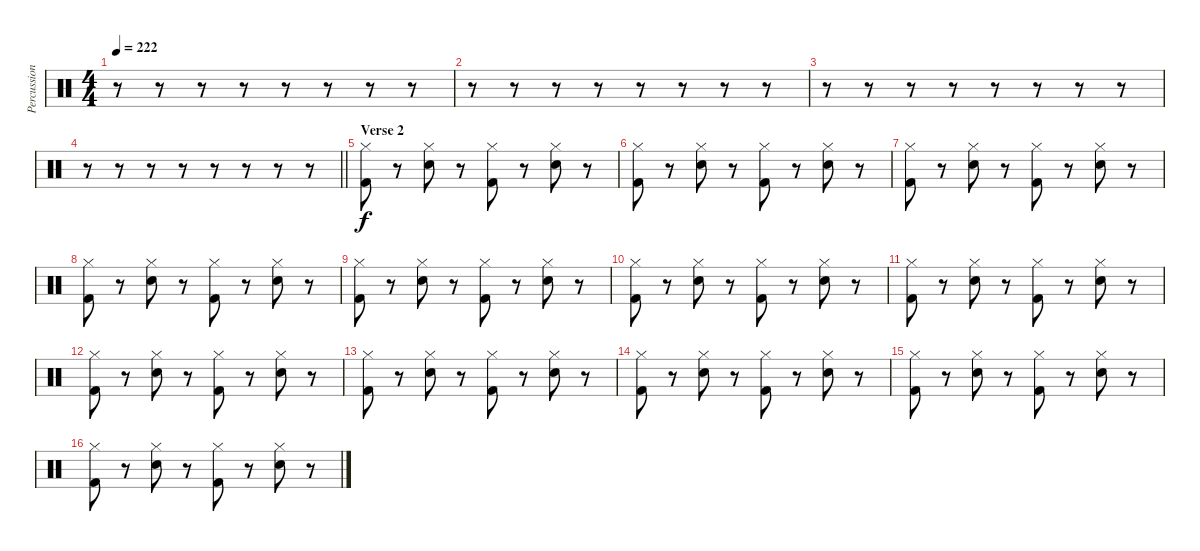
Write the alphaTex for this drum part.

\track ("Percussion" "Percussion") {instrument percussion}
\staff {score}
\articulation defaults
\ts (4 4)
\tempo 222
\clef neutral
\ks c
r.8{dy f} r.8 r.8 r.8 r.8 r.8 r.8 r.8 |
r.8 r.8 r.8 r.8 r.8 r.8 r.8 r.8 |
r.8 r.8 r.8 r.8 r.8 r.8 r.8 r.8 |
\barLineRight lightlight
r.8 r.8 r.8 r.8 r.8 r.8 r.8 r.8 |
\section ("" "Verse 2")
("Kick (hit) 2" "Hi-Hat (closed)").8 r.8 ("Snare (hit) 2" "Hi-Hat (closed)").8 r.8 ("Kick (hit) 2" "Hi-Hat (closed)").8 r.8 ("Snare (hit) 2" "Hi-Hat (closed)").8 r.8 |
("Kick (hit) 2" "Hi-Hat (closed)").8 r.8 ("Snare (hit) 2" "Hi-Hat (closed)").8 r.8 ("Kick (hit) 2" "Hi-Hat (closed)").8 r.8 ("Snare (hit) 2" "Hi-Hat (closed)").8 r.8 |
("Kick (hit) 2" "Hi-Hat (closed)").8 r.8 ("Snare (hit) 2" "Hi-Hat (closed)").8 r.8 ("Kick (hit) 2" "Hi-Hat (closed)").8 r.8 ("Snare (hit) 2" "Hi-Hat (closed)").8 r.8 |
("Kick (hit) 2" "Hi-Hat (closed)").8 r.8 ("Snare (hit) 2" "Hi-Hat (closed)").8 r.8 ("Kick (hit) 2" "Hi-Hat (closed)").8 r.8 ("Snare (hit) 2" "Hi-Hat (closed)").8 r.8 |
("Kick (hit) 2" "Hi-Hat (closed)").8 r.8 ("Snare (hit) 2" "Hi-Hat (closed)").8 r.8 ("Kick (hit) 2" "Hi-Hat (closed)").8 r.8 ("Snare (hit) 2" "Hi-Hat (closed)").8 r.8 |
("Kick (hit) 2" "Hi-Hat (closed)").8 r.8 ("Snare (hit) 2" "Hi-Hat (closed)").8 r.8 ("Kick (hit) 2" "Hi-Hat (closed)").8 r.8 ("Snare (hit) 2" "Hi-Hat (closed)").8 r.8 |
("Kick (hit) 2" "Hi-Hat (closed)").8 r.8 ("Snare (hit) 2" "Hi-Hat (closed)").8 r.8 ("Kick (hit) 2" "Hi-Hat (closed)").8 r.8 ("Snare (hit) 2" "Hi-Hat (closed)").8 r.8 |
("Kick (hit) 2" "Hi-Hat (closed)").8 r.8 ("Snare (hit) 2" "Hi-Hat (closed)").8 r.8 ("Kick (hit) 2" "Hi-Hat (closed)").8 r.8 ("Snare (hit) 2" "Hi-Hat (closed)").8 r.8 |
("Kick (hit) 2" "Hi-Hat (closed)").8 r.8 ("Snare (hit) 2" "Hi-Hat (closed)").8 r.8 ("Kick (hit) 2" "Hi-Hat (closed)").8 r.8 ("Snare (hit) 2" "Hi-Hat (closed)").8 r.8 |
("Kick (hit) 2" "Hi-Hat (closed)").8 r.8 ("Snare (hit) 2" "Hi-Hat (closed)").8 r.8 ("Kick (hit) 2" "Hi-Hat (closed)").8 r.8 ("Snare (hit) 2" "Hi-Hat (closed)").8 r.8 |
("Kick (hit) 2" "Hi-Hat (closed)").8 r.8 ("Snare (hit) 2" "Hi-Hat (closed)").8 r.8 ("Kick (hit) 2" "Hi-Hat (closed)").8 r.8 ("Snare (hit) 2" "Hi-Hat (closed)").8 r.8 |
("Kick (hit) 2" "Hi-Hat (closed)").8 r.8 ("Snare (hit) 2" "Hi-Hat (closed)").8 r.8 ("Kick (hit) 2" "Hi-Hat (closed)").8 r.8 ("Snare (hit) 2" "Hi-Hat (closed)").8 r.8
